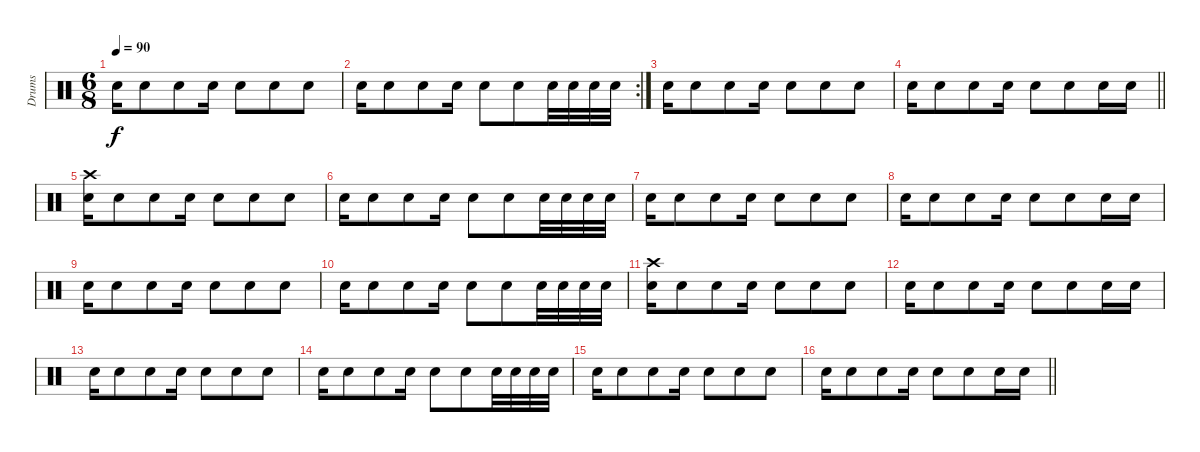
\track ("Drums" "Drums") {instrument percussion}
\staff {score}
\articulation defaults
\ts (6 8)
\section ("" "")
\tempo 90
\clef neutral
\ks c "Electric Snare (hit)".16{dy f} "Electric Snare (hit)".8 "Electric Snare (hit)".8 "Electric Snare (hit)".16 "Electric Snare (hit)".8 "Electric Snare (hit)".8 "Electric Snare (hit)".8
|
\rc 2 "Electric Snare (hit)".16 "Electric Snare (hit)".8 "Electric Snare (hit)".8 "Electric Snare (hit)".16 "Electric Snare (hit)".8 "Electric Snare (hit)".8 "Electric Snare (hit)".32 "Electric Snare (hit)".32 "Electric Snare (hit)".32 "Electric Snare (hit)".32
|
"Electric Snare (hit)".16 "Electric Snare (hit)".8 "Electric Snare (hit)".8 "Electric Snare (hit)".16 "Electric Snare (hit)".8 "Electric Snare (hit)".8 "Electric Snare (hit)".8 |
\barLineRight lightlight "Electric Snare (hit)".16 "Electric Snare (hit)".8 "Electric Snare (hit)".8 "Electric Snare (hit)".16 "Electric Snare (hit)".8 "Electric Snare (hit)".8 "Electric Snare (hit)".16 "Electric Snare (hit)".16
|
("Electric Snare (hit)" "Crash high (hit)").16 "Electric Snare (hit)".8 "Electric Snare (hit)".8 "Electric Snare (hit)".16 "Electric Snare (hit)".8 "Electric Snare (hit)".8 "Electric Snare (hit)".8 |
"Electric Snare (hit)".16 "Electric Snare (hit)".8 "Electric Snare (hit)".8 "Electric Snare (hit)".16 "Electric Snare (hit)".8 "Electric Snare (hit)".8 "Electric Snare (hit)".32 "Electric Snare (hit)".32 "Electric Snare (hit)".32 "Electric Snare (hit)".32 |
"Electric Snare (hit)".16 "Electric Snare (hit)".8 "Electric Snare (hit)".8 "Electric Snare (hit)".16 "Electric Snare (hit)".8 "Electric Snare (hit)".8 "Electric Snare (hit)".8 |
"Electric Snare (hit)".16 "Electric Snare (hit)".8 "Electric Snare (hit)".8 "Electric Snare (hit)".16 "Electric Snare (hit)".8 "Electric Snare (hit)".8 "Electric Snare (hit)".16 "Electric Snare (hit)".16 |
"Electric Snare (hit)".16 "Electric Snare (hit)".8 "Electric Snare (hit)".8 "Electric Snare (hit)".16 "Electric Snare (hit)".8 "Electric Snare (hit)".8 "Electric Snare (hit)".8 |
"Electric Snare (hit)".16 "Electric Snare (hit)".8 "Electric Snare (hit)".8 "Electric Snare (hit)".16 "Electric Snare (hit)".8 "Electric Snare (hit)".8 "Electric Snare (hit)".32 "Electric Snare (hit)".32 "Electric Snare (hit)".32 "Electric Snare (hit)".32 |
("Electric Snare (hit)" "Crash high (hit)").16 "Electric Snare (hit)".8 "Electric Snare (hit)".8 "Electric Snare (hit)".16 "Electric Snare (hit)".8 "Electric Snare (hit)".8 "Electric Snare (hit)".8 |
"Electric Snare (hit)".16 "Electric Snare (hit)".8 "Electric Snare (hit)".8 "Electric Snare (hit)".16 "Electric Snare (hit)".8 "Electric Snare (hit)".8 "Electric Snare (hit)".16 "Electric Snare (hit)".16 |
"Electric Snare (hit)".16 "Electric Snare (hit)".8 "Electric Snare (hit)".8 "Electric Snare (hit)".16 "Electric Snare (hit)".8 "Electric Snare (hit)".8 "Electric Snare (hit)".8 |
"Electric Snare (hit)".16 "Electric Snare (hit)".8 "Electric Snare (hit)".8 "Electric Snare (hit)".16 "Electric Snare (hit)".8 "Electric Snare (hit)".8 "Electric Snare (hit)".32 "Electric Snare (hit)".32 "Electric Snare (hit)".32 "Electric Snare (hit)".32 |
"Electric Snare (hit)".16 "Electric Snare (hit)".8 "Electric Snare (hit)".8 "Electric Snare (hit)".16 "Electric Snare (hit)".8 "Electric Snare (hit)".8 "Electric Snare (hit)".8 |
\barLineRight lightlight "Electric Snare (hit)".16 "Electric Snare (hit)".8 "Electric Snare (hit)".8 "Electric Snare (hit)".16 "Electric Snare (hit)".8 "Electric Snare (hit)".8 "Electric Snare (hit)".16 "Electric Snare (hit)".16
